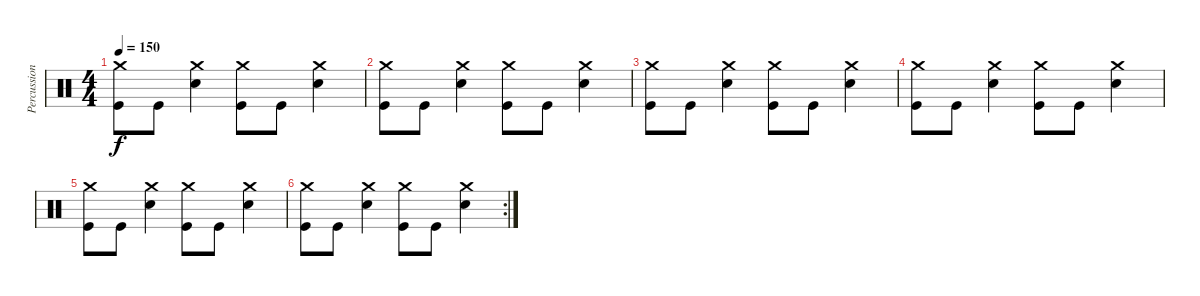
\track ("Percussion" "Percussion") {instrument percussion}
\staff {score}
\articulation defaults
\ts (4 4)
\tempo 150
\clef neutral
\ks c
("Crash medium (hit)" "Kick (hit)").8{dy f} "Kick (hit)".8 ("Crash medium (hit)" "Snare (hit) 2").4 ("Crash medium (hit)" "Kick (hit)").8 "Kick (hit)".8 ("Crash medium (hit)" "Snare (hit) 2").4 |
("Crash medium (hit)" "Kick (hit)").8 "Kick (hit)".8 ("Crash medium (hit)" "Snare (hit) 2").4 ("Crash medium (hit)" "Kick (hit)").8 "Kick (hit)".8 ("Crash medium (hit)" "Snare (hit) 2").4 |
("Crash medium (hit)" "Kick (hit)").8 "Kick (hit)".8 ("Crash medium (hit)" "Snare (hit) 2").4 ("Crash medium (hit)" "Kick (hit)").8 "Kick (hit)".8 ("Crash medium (hit)" "Snare (hit) 2").4 |
("Crash medium (hit)" "Kick (hit)").8 "Kick (hit)".8 ("Crash medium (hit)" "Snare (hit) 2").4 ("Crash medium (hit)" "Kick (hit)").8 "Kick (hit)".8 ("Crash medium (hit)" "Snare (hit) 2").4 |
("Crash medium (hit)" "Kick (hit)").8 "Kick (hit)".8 ("Crash medium (hit)" "Snare (hit) 2").4 ("Crash medium (hit)" "Kick (hit)").8 "Kick (hit)".8 ("Crash medium (hit)" "Snare (hit) 2").4 |
\rc 2
("Crash medium (hit)" "Kick (hit)").8 "Kick (hit)".8 ("Crash medium (hit)" "Snare (hit) 2").4 ("Crash medium (hit)" "Kick (hit)").8 "Kick (hit)".8 ("Crash medium (hit)" "Snare (hit) 2").4
